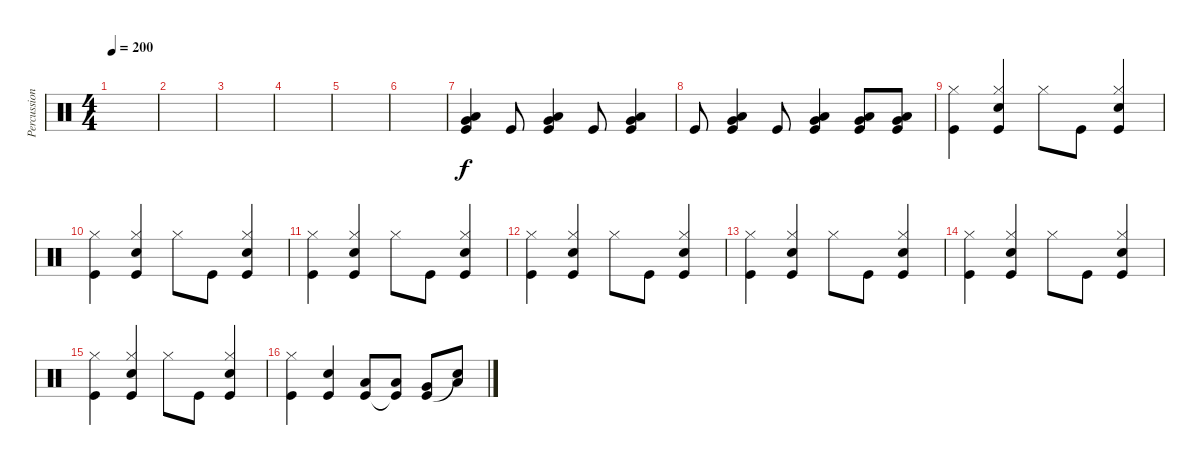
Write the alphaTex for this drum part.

\track ("Percussion" "Percussion") {instrument percussion}
\staff {score}
\articulation defaults
\ts (4 4)
\tempo 200
\clef neutral
\ks c
|
|
|
|
|
|
("Very Low Tom (hit)" "Low Floor Tom (hit)" "Kick (hit)").4 "Kick (hit)".8 ("Very Low Tom (hit)" "Low Floor Tom (hit)" "Kick (hit)").4 "Kick (hit)".8 ("Very Low Tom (hit)" "Low Floor Tom (hit)" "Kick (hit)").4 |
"Kick (hit)".8 ("Very Low Tom (hit)" "Low Floor Tom (hit)" "Kick (hit)").4 "Kick (hit)".8 ("Very Low Tom (hit)" "Low Floor Tom (hit)" "Kick (hit)").4 ("Very Low Tom (hit)" "Low Floor Tom (hit)" "Kick (hit)").8 ("Very Low Tom (hit)" "Low Floor Tom (hit)" "Kick (hit)").8 |
("Hi-Hat (closed)" "Kick (hit)").4 ("Snare (hit) 2" "Hi-Hat (closed)" "Kick (hit)").4 "Hi-Hat (closed)".8 "Kick (hit)".8 ("Snare (hit) 2" "Hi-Hat (closed)" "Kick (hit)").4 |
("Hi-Hat (closed)" "Kick (hit)").4 ("Snare (hit) 2" "Hi-Hat (closed)" "Kick (hit)").4 "Hi-Hat (closed)".8 "Kick (hit)".8 ("Snare (hit) 2" "Hi-Hat (closed)" "Kick (hit)").4 |
("Hi-Hat (closed)" "Kick (hit)").4 ("Snare (hit) 2" "Hi-Hat (closed)" "Kick (hit)").4 "Hi-Hat (closed)".8 "Kick (hit)".8 ("Snare (hit) 2" "Hi-Hat (closed)" "Kick (hit)").4 |
("Hi-Hat (closed)" "Kick (hit)").4 ("Snare (hit) 2" "Hi-Hat (closed)" "Kick (hit)").4 "Hi-Hat (closed)".8 "Kick (hit)".8 ("Snare (hit) 2" "Hi-Hat (closed)" "Kick (hit)").4 |
("Hi-Hat (closed)" "Kick (hit)").4 ("Snare (hit) 2" "Hi-Hat (closed)" "Kick (hit)").4 "Hi-Hat (closed)".8 "Kick (hit)".8 ("Snare (hit) 2" "Hi-Hat (closed)" "Kick (hit)").4 |
("Hi-Hat (closed)" "Kick (hit)").4 ("Snare (hit) 2" "Hi-Hat (closed)" "Kick (hit)").4 "Hi-Hat (closed)".8 "Kick (hit)".8 ("Snare (hit) 2" "Hi-Hat (closed)" "Kick (hit)").4 |
("Hi-Hat (closed)" "Kick (hit)").4 ("Snare (hit) 2" "Hi-Hat (closed)" "Kick (hit)").4 "Hi-Hat (closed)".8 "Kick (hit)".8 ("Snare (hit) 2" "Hi-Hat (closed)" "Kick (hit)").4 |
("Hi-Hat (closed)" "Kick (hit)").4 ("Snare (hit) 2" "Kick (hit)").4 ("Low Tom (hit)" "Kick (hit)").8 ("Low Tom (hit)" "Kick (hit)"{t}).8 ("Very Low Tom (hit)" "Kick (hit)").8 ("Low Floor Tom (hit)" "Snare (hit)"{t}).8
